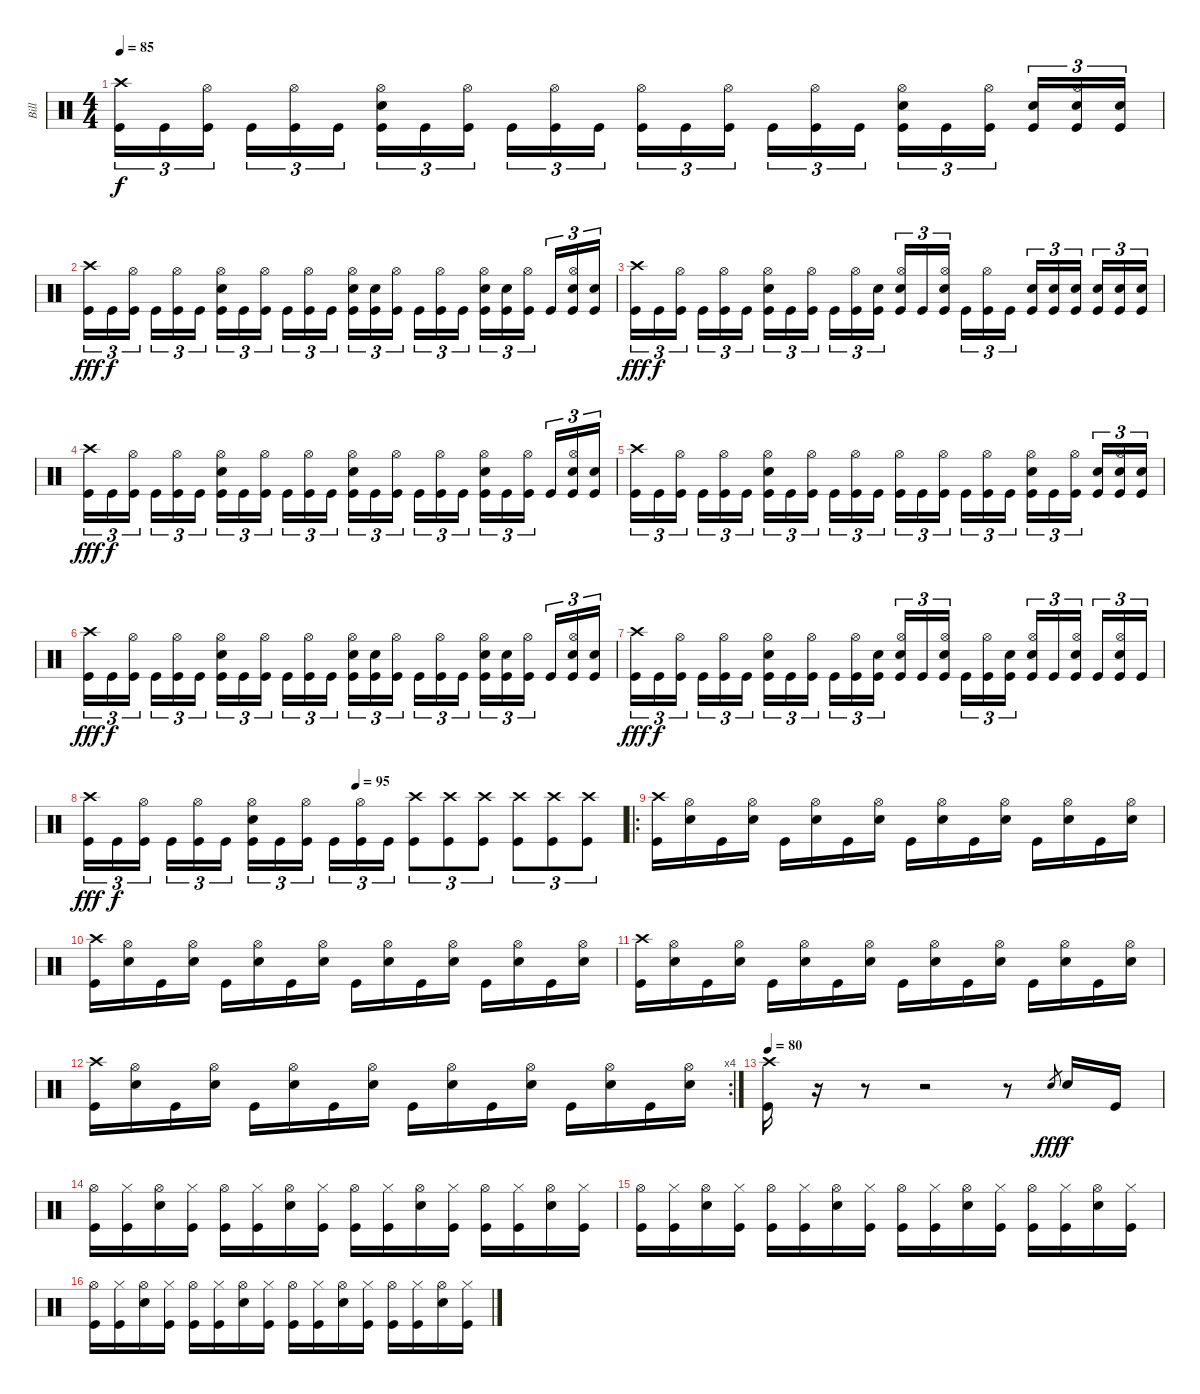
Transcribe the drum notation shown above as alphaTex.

\track ("Bill" "Bill") {instrument percussion}
\staff {score}
\articulation defaults
\ts (4 4)
\tempo 85
\clef neutral
\ks c
("Crash high (hit)" "Kick (hit)").16{tu (3 2) dy f} "Kick (hit)".16{tu (3 2)} ("Hi-Hat (open)" "Kick (hit)").16{tu (3 2)} "Kick (hit)".16{tu (3 2)} ("Hi-Hat (open)" "Kick (hit)").16{tu (3 2)} "Kick (hit)".16{tu (3 2)} ("Snare (hit) 2" "Hi-Hat (open)" "Kick (hit)").16{tu (3 2)} "Kick (hit)".16{tu (3 2)} ("Hi-Hat (open)" "Kick (hit)").16{tu (3 2)} "Kick (hit)".16{tu (3 2)} ("Hi-Hat (open)" "Kick (hit)").16{tu (3 2)} "Kick (hit)".16{tu (3 2)} ("Hi-Hat (open)" "Kick (hit)").16{tu (3 2)} "Kick (hit)".16{tu (3 2)} ("Hi-Hat (open)" "Kick (hit)").16{tu (3 2)} "Kick (hit)".16{tu (3 2)} ("Hi-Hat (open)" "Kick (hit)").16{tu (3 2)} "Kick (hit)".16{tu (3 2)} ("Snare (hit) 2" "Hi-Hat (open)" "Kick (hit)").16{tu (3 2)} "Kick (hit)".16{tu (3 2)} ("Hi-Hat (open)" "Kick (hit)").16{tu (3 2)} ("Snare (hit) 2" "Kick (hit)").16{tu (3 2)} ("Snare (hit) 2" "Hi-Hat (open)" "Kick (hit)").16{tu (3 2)} ("Snare (hit) 2" "Kick (hit)").16{tu (3 2)} |
("Crash high (hit)" "Kick (hit)").16{tu (3 2) dy fff} "Kick (hit)".16{tu (3 2) dy f} ("Hi-Hat (open)" "Kick (hit)").16{tu (3 2)} "Kick (hit)".16{tu (3 2)} ("Hi-Hat (open)" "Kick (hit)").16{tu (3 2)} "Kick (hit)".16{tu (3 2)} ("Snare (hit) 2" "Hi-Hat (open)" "Kick (hit)").16{tu (3 2)} "Kick (hit)".16{tu (3 2)} ("Hi-Hat (open)" "Kick (hit)").16{tu (3 2)} "Kick (hit)".16{tu (3 2)} ("Hi-Hat (open)" "Kick (hit)").16{tu (3 2)} "Kick (hit)".16{tu (3 2)} ("Snare (hit) 2" "Hi-Hat (open)" "Kick (hit)").16{tu (3 2)} ("Snare (hit) 2" "Kick (hit)").16{tu (3 2)} ("Hi-Hat (open)" "Kick (hit)").16{tu (3 2)} "Kick (hit)".16{tu (3 2)} ("Hi-Hat (open)" "Kick (hit)").16{tu (3 2)} "Kick (hit)".16{tu (3 2)} ("Snare (hit) 2" "Hi-Hat (open)" "Kick (hit)").16{tu (3 2)} ("Snare (hit) 2" "Kick (hit)").16{tu (3 2)} ("Hi-Hat (open)" "Kick (hit)").16{tu (3 2)} "Kick (hit)".16{tu (3 2)} ("Snare (hit) 2" "Hi-Hat (open)" "Kick (hit)").16{tu (3 2)} ("Snare (hit) 2" "Kick (hit)").16{tu (3 2)} |
("Crash high (hit)" "Kick (hit)").16{tu (3 2) dy fff} "Kick (hit)".16{tu (3 2) dy f} ("Hi-Hat (open)" "Kick (hit)").16{tu (3 2)} "Kick (hit)".16{tu (3 2)} ("Hi-Hat (open)" "Kick (hit)").16{tu (3 2)} "Kick (hit)".16{tu (3 2)} ("Snare (hit) 2" "Hi-Hat (open)" "Kick (hit)").16{tu (3 2)} "Kick (hit)".16{tu (3 2)} ("Hi-Hat (open)" "Kick (hit)").16{tu (3 2)} "Kick (hit)".16{tu (3 2)} ("Hi-Hat (open)" "Kick (hit)").16{tu (3 2)} ("Snare (hit) 2" "Kick (hit)").16{tu (3 2)} ("Snare (hit) 2" "Hi-Hat (open)" "Kick (hit)").16{tu (3 2)} "Kick (hit)".16{tu (3 2)} ("Snare (hit) 2" "Hi-Hat (open)" "Kick (hit)").16{tu (3 2)} "Kick (hit)".16{tu (3 2)} ("Hi-Hat (open)" "Kick (hit)").16{tu (3 2)} "Kick (hit)".16{tu (3 2)} ("Snare (hit) 2" "Kick (hit)").16{tu (3 2)} ("Snare (hit) 2" "Kick (hit)").16{tu (3 2)} ("Snare (hit) 2" "Kick (hit)").16{tu (3 2)} ("Snare (hit) 2" "Kick (hit)").16{tu (3 2)} ("Snare (hit) 2" "Kick (hit)").16{tu (3 2)} ("Snare (hit) 2" "Kick (hit)").16{tu (3 2)} |
("Crash high (hit)" "Kick (hit)").16{tu (3 2) dy fff} "Kick (hit)".16{tu (3 2) dy f} ("Hi-Hat (open)" "Kick (hit)").16{tu (3 2)} "Kick (hit)".16{tu (3 2)} ("Hi-Hat (open)" "Kick (hit)").16{tu (3 2)} "Kick (hit)".16{tu (3 2)} ("Snare (hit) 2" "Hi-Hat (open)" "Kick (hit)").16{tu (3 2)} "Kick (hit)".16{tu (3 2)} ("Hi-Hat (open)" "Kick (hit)").16{tu (3 2)} "Kick (hit)".16{tu (3 2)} ("Hi-Hat (open)" "Kick (hit)").16{tu (3 2)} "Kick (hit)".16{tu (3 2)} ("Snare (hit) 2" "Hi-Hat (open)" "Kick (hit)").16{tu (3 2)} "Kick (hit)".16{tu (3 2)} ("Hi-Hat (open)" "Kick (hit)").16{tu (3 2)} "Kick (hit)".16{tu (3 2)} ("Hi-Hat (open)" "Kick (hit)").16{tu (3 2)} "Kick (hit)".16{tu (3 2)} ("Snare (hit) 2" "Hi-Hat (open)" "Kick (hit)").16{tu (3 2)} "Kick (hit)".16{tu (3 2)} ("Hi-Hat (open)" "Kick (hit)").16{tu (3 2)} "Kick (hit)".16{tu (3 2)} ("Snare (hit) 2" "Hi-Hat (open)" "Kick (hit)").16{tu (3 2)} ("Snare (hit) 2" "Kick (hit)").16{tu (3 2)} |
("Crash high (hit)" "Kick (hit)").16{tu (3 2)} "Kick (hit)".16{tu (3 2)} ("Hi-Hat (open)" "Kick (hit)").16{tu (3 2)} "Kick (hit)".16{tu (3 2)} ("Hi-Hat (open)" "Kick (hit)").16{tu (3 2)} "Kick (hit)".16{tu (3 2)} ("Snare (hit) 2" "Hi-Hat (open)" "Kick (hit)").16{tu (3 2)} "Kick (hit)".16{tu (3 2)} ("Hi-Hat (open)" "Kick (hit)").16{tu (3 2)} "Kick (hit)".16{tu (3 2)} ("Hi-Hat (open)" "Kick (hit)").16{tu (3 2)} "Kick (hit)".16{tu (3 2)} ("Hi-Hat (open)" "Kick (hit)").16{tu (3 2)} "Kick (hit)".16{tu (3 2)} ("Hi-Hat (open)" "Kick (hit)").16{tu (3 2)} "Kick (hit)".16{tu (3 2)} ("Hi-Hat (open)" "Kick (hit)").16{tu (3 2)} "Kick (hit)".16{tu (3 2)} ("Snare (hit) 2" "Hi-Hat (open)" "Kick (hit)").16{tu (3 2)} "Kick (hit)".16{tu (3 2)} ("Hi-Hat (open)" "Kick (hit)").16{tu (3 2)} ("Snare (hit) 2" "Kick (hit)").16{tu (3 2)} ("Snare (hit) 2" "Hi-Hat (open)" "Kick (hit)").16{tu (3 2)} ("Snare (hit) 2" "Kick (hit)").16{tu (3 2)} |
("Crash high (hit)" "Kick (hit)").16{tu (3 2) dy fff} "Kick (hit)".16{tu (3 2) dy f} ("Hi-Hat (open)" "Kick (hit)").16{tu (3 2)} "Kick (hit)".16{tu (3 2)} ("Hi-Hat (open)" "Kick (hit)").16{tu (3 2)} "Kick (hit)".16{tu (3 2)} ("Snare (hit) 2" "Hi-Hat (open)" "Kick (hit)").16{tu (3 2)} "Kick (hit)".16{tu (3 2)} ("Hi-Hat (open)" "Kick (hit)").16{tu (3 2)} "Kick (hit)".16{tu (3 2)} ("Hi-Hat (open)" "Kick (hit)").16{tu (3 2)} "Kick (hit)".16{tu (3 2)} ("Snare (hit) 2" "Hi-Hat (open)" "Kick (hit)").16{tu (3 2)} ("Snare (hit) 2" "Kick (hit)").16{tu (3 2)} ("Hi-Hat (open)" "Kick (hit)").16{tu (3 2)} "Kick (hit)".16{tu (3 2)} ("Hi-Hat (open)" "Kick (hit)").16{tu (3 2)} "Kick (hit)".16{tu (3 2)} ("Snare (hit) 2" "Hi-Hat (open)" "Kick (hit)").16{tu (3 2)} ("Snare (hit) 2" "Kick (hit)").16{tu (3 2)} ("Hi-Hat (open)" "Kick (hit)").16{tu (3 2)} "Kick (hit)".16{tu (3 2)} ("Snare (hit) 2" "Hi-Hat (open)" "Kick (hit)").16{tu (3 2)} ("Snare (hit) 2" "Kick (hit)").16{tu (3 2)} |
("Crash high (hit)" "Kick (hit)").16{tu (3 2) dy fff} "Kick (hit)".16{tu (3 2) dy f} ("Hi-Hat (open)" "Kick (hit)").16{tu (3 2)} "Kick (hit)".16{tu (3 2)} ("Hi-Hat (open)" "Kick (hit)").16{tu (3 2)} "Kick (hit)".16{tu (3 2)} ("Snare (hit) 2" "Hi-Hat (open)" "Kick (hit)").16{tu (3 2)} "Kick (hit)".16{tu (3 2)} ("Hi-Hat (open)" "Kick (hit)").16{tu (3 2)} "Kick (hit)".16{tu (3 2)} ("Hi-Hat (open)" "Kick (hit)").16{tu (3 2)} ("Snare (hit) 2" "Kick (hit)").16{tu (3 2)} ("Snare (hit) 2" "Hi-Hat (open)" "Kick (hit)").16{tu (3 2)} "Kick (hit)".16{tu (3 2)} ("Snare (hit) 2" "Hi-Hat (open)" "Kick (hit)").16{tu (3 2)} "Kick (hit)".16{tu (3 2)} ("Hi-Hat (open)" "Kick (hit)").16{tu (3 2)} ("Snare (hit) 2" "Kick (hit)").16{tu (3 2)} ("Snare (hit) 2" "Hi-Hat (open)" "Kick (hit)").16{tu (3 2)} "Kick (hit)".16{tu (3 2)} ("Snare (hit) 2" "Hi-Hat (open)" "Kick (hit)").16{tu (3 2)} "Kick (hit)".16{tu (3 2)} ("Snare (hit) 2" "Hi-Hat (open)" "Kick (hit)").16{tu (3 2)} "Kick (hit)".16{tu (3 2)} |
\tempo (95 0.5)
("Crash high (hit)" "Kick (hit)").16{tu (3 2) dy fff} "Kick (hit)".16{tu (3 2) dy f} ("Hi-Hat (open)" "Kick (hit)").16{tu (3 2)} "Kick (hit)".16{tu (3 2)} ("Hi-Hat (open)" "Kick (hit)").16{tu (3 2)} "Kick (hit)".16{tu (3 2)} ("Snare (hit) 2" "Hi-Hat (open)" "Kick (hit)").16{tu (3 2)} "Kick (hit)".16{tu (3 2)} ("Hi-Hat (open)" "Kick (hit)").16{tu (3 2)} "Kick (hit)".16{tu (3 2)} ("Hi-Hat (open)" "Kick (hit)").16{tu (3 2)} "Kick (hit)".16{tu (3 2)} ("Crash high (hit)" "Kick (hit)").8{tu (3 2)} ("Crash high (hit)" "Kick (hit)").8{tu (3 2)} ("Crash high (hit)" "Kick (hit)").8{tu (3 2)} ("Crash high (hit)" "Kick (hit)").8{tu (3 2)} ("Crash high (hit)" "Kick (hit)").8{tu (3 2)} ("Crash high (hit)" "Kick (hit)").8{tu (3 2)} |
\ro
("Crash high (hit)" "Kick (hit)").16 ("Hi-Hat (open)" "Snare (hit) 2").16 "Kick (hit)".16 ("Hi-Hat (open)" "Snare (hit) 2").16 "Kick (hit)".16 ("Hi-Hat (open)" "Snare (hit) 2").16 "Kick (hit)".16 ("Hi-Hat (open)" "Snare (hit) 2").16 "Kick (hit)".16 ("Hi-Hat (open)" "Snare (hit) 2").16 "Kick (hit)".16 ("Hi-Hat (open)" "Snare (hit) 2").16 "Kick (hit)".16 ("Hi-Hat (open)" "Snare (hit) 2").16 "Kick (hit)".16 ("Hi-Hat (open)" "Snare (hit) 2").16 |
("Crash high (hit)" "Kick (hit)").16 ("Hi-Hat (open)" "Snare (hit) 2").16 "Kick (hit)".16 ("Hi-Hat (open)" "Snare (hit) 2").16 "Kick (hit)".16 ("Hi-Hat (open)" "Snare (hit) 2").16 "Kick (hit)".16 ("Hi-Hat (open)" "Snare (hit) 2").16 "Kick (hit)".16 ("Hi-Hat (open)" "Snare (hit) 2").16 "Kick (hit)".16 ("Hi-Hat (open)" "Snare (hit) 2").16 "Kick (hit)".16 ("Hi-Hat (open)" "Snare (hit) 2").16 "Kick (hit)".16 ("Hi-Hat (open)" "Snare (hit) 2").16 |
("Crash high (hit)" "Kick (hit)").16 ("Hi-Hat (open)" "Snare (hit) 2").16 "Kick (hit)".16 ("Hi-Hat (open)" "Snare (hit) 2").16 "Kick (hit)".16 ("Hi-Hat (open)" "Snare (hit) 2").16 "Kick (hit)".16 ("Hi-Hat (open)" "Snare (hit) 2").16 "Kick (hit)".16 ("Hi-Hat (open)" "Snare (hit) 2").16 "Kick (hit)".16 ("Hi-Hat (open)" "Snare (hit) 2").16 "Kick (hit)".16 ("Hi-Hat (open)" "Snare (hit) 2").16 "Kick (hit)".16 ("Hi-Hat (open)" "Snare (hit) 2").16 |
\rc 4
("Crash high (hit)" "Kick (hit)").16 ("Hi-Hat (open)" "Snare (hit) 2").16 "Kick (hit)".16 ("Hi-Hat (open)" "Snare (hit) 2").16 "Kick (hit)".16 ("Hi-Hat (open)" "Snare (hit) 2").16 "Kick (hit)".16 ("Hi-Hat (open)" "Snare (hit) 2").16 "Kick (hit)".16 ("Hi-Hat (open)" "Snare (hit) 2").16 "Kick (hit)".16 ("Hi-Hat (open)" "Snare (hit) 2").16 "Kick (hit)".16 ("Hi-Hat (open)" "Snare (hit) 2").16 "Kick (hit)".16 ("Hi-Hat (open)" "Snare (hit) 2").16 |
\tempo 80
("Crash high (hit)" "Kick (hit)").16 r.16 r.8 r.2 r.8 "Snare (hit) 2".8{gr dy fff} "Snare (hit) 2".16{dy f} "Kick (hit)".16 |
("Hi-Hat (open)" "Kick (hit)").16 ("Hi-Hat (closed)" "Kick (hit)").16 ("Hi-Hat (open)" "Snare (hit) 2").16 ("Hi-Hat (closed)" "Kick (hit)").16 ("Hi-Hat (open)" "Kick (hit)").16 ("Hi-Hat (closed)" "Kick (hit)").16 ("Hi-Hat (open)" "Snare (hit) 2").16 ("Hi-Hat (closed)" "Kick (hit)").16 ("Hi-Hat (open)" "Kick (hit)").16 ("Hi-Hat (closed)" "Kick (hit)").16 ("Hi-Hat (open)" "Snare (hit) 2").16 ("Hi-Hat (closed)" "Kick (hit)").16 ("Hi-Hat (open)" "Kick (hit)").16 ("Hi-Hat (closed)" "Kick (hit)").16 ("Hi-Hat (open)" "Snare (hit) 2").16 ("Hi-Hat (closed)" "Kick (hit)").16 |
("Hi-Hat (open)" "Kick (hit)").16 ("Hi-Hat (closed)" "Kick (hit)").16 ("Hi-Hat (open)" "Snare (hit) 2").16 ("Hi-Hat (closed)" "Kick (hit)").16 ("Hi-Hat (open)" "Kick (hit)").16 ("Hi-Hat (closed)" "Kick (hit)").16 ("Hi-Hat (open)" "Snare (hit) 2").16 ("Hi-Hat (closed)" "Kick (hit)").16 ("Hi-Hat (open)" "Kick (hit)").16 ("Hi-Hat (closed)" "Kick (hit)").16 ("Hi-Hat (open)" "Snare (hit) 2").16 ("Hi-Hat (closed)" "Kick (hit)").16 ("Hi-Hat (open)" "Kick (hit)").16 ("Hi-Hat (closed)" "Kick (hit)").16 ("Hi-Hat (open)" "Snare (hit) 2").16 ("Hi-Hat (closed)" "Kick (hit)").16 |
("Hi-Hat (open)" "Kick (hit)").16 ("Hi-Hat (closed)" "Kick (hit)").16 ("Hi-Hat (open)" "Snare (hit) 2").16 ("Hi-Hat (closed)" "Kick (hit)").16 ("Hi-Hat (open)" "Kick (hit)").16 ("Hi-Hat (closed)" "Kick (hit)").16 ("Hi-Hat (open)" "Snare (hit) 2").16 ("Hi-Hat (closed)" "Kick (hit)").16 ("Hi-Hat (open)" "Kick (hit)").16 ("Hi-Hat (closed)" "Kick (hit)").16 ("Hi-Hat (open)" "Snare (hit) 2").16 ("Hi-Hat (closed)" "Kick (hit)").16 ("Hi-Hat (open)" "Kick (hit)").16 ("Hi-Hat (closed)" "Kick (hit)").16 ("Hi-Hat (open)" "Snare (hit) 2").16 ("Hi-Hat (closed)" "Kick (hit)").16
